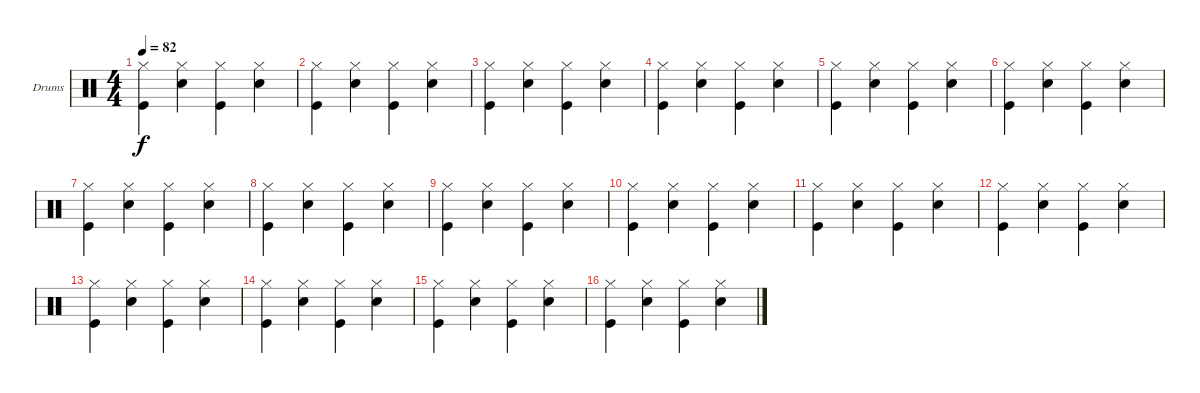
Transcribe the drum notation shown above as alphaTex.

\bracketExtendMode groupsimilarinstruments
\firstSystemTrackNameOrientation horizontal
\otherSystemsTrackNameOrientation horizontal
\track ("Drumkit" "Drums") {instrument percussion}
\staff {score}
\articulation defaults
\ts (4 4)
\tempo 82
\clef neutral
\ks c
("Hi-Hat (closed)" "Kick (hit)").4{dy f} ("Hi-Hat (closed)" "Snare (hit) 2").4 ("Hi-Hat (closed)" "Kick (hit)").4 ("Hi-Hat (closed)" "Snare (hit) 2").4 |
("Hi-Hat (closed)" "Kick (hit)").4 ("Hi-Hat (closed)" "Snare (hit) 2").4 ("Hi-Hat (closed)" "Kick (hit)").4 ("Hi-Hat (closed)" "Snare (hit) 2").4 |
("Hi-Hat (closed)" "Kick (hit)").4 ("Hi-Hat (closed)" "Snare (hit) 2").4 ("Hi-Hat (closed)" "Kick (hit)").4 ("Hi-Hat (closed)" "Snare (hit) 2").4 |
("Hi-Hat (closed)" "Kick (hit)").4 ("Hi-Hat (closed)" "Snare (hit) 2").4 ("Hi-Hat (closed)" "Kick (hit)").4 ("Hi-Hat (closed)" "Snare (hit) 2").4 |
("Hi-Hat (closed)" "Kick (hit)").4 ("Hi-Hat (closed)" "Snare (hit) 2").4 ("Hi-Hat (closed)" "Kick (hit)").4 ("Hi-Hat (closed)" "Snare (hit) 2").4 |
("Hi-Hat (closed)" "Kick (hit)").4 ("Hi-Hat (closed)" "Snare (hit) 2").4 ("Hi-Hat (closed)" "Kick (hit)").4 ("Hi-Hat (closed)" "Snare (hit) 2").4 |
("Hi-Hat (closed)" "Kick (hit)").4 ("Hi-Hat (closed)" "Snare (hit) 2").4 ("Hi-Hat (closed)" "Kick (hit)").4 ("Hi-Hat (closed)" "Snare (hit) 2").4 |
("Hi-Hat (closed)" "Kick (hit)").4 ("Hi-Hat (closed)" "Snare (hit) 2").4 ("Hi-Hat (closed)" "Kick (hit)").4 ("Hi-Hat (closed)" "Snare (hit) 2").4 |
("Hi-Hat (closed)" "Kick (hit)").4 ("Hi-Hat (closed)" "Snare (hit) 2").4 ("Hi-Hat (closed)" "Kick (hit)").4 ("Hi-Hat (closed)" "Snare (hit) 2").4 |
("Hi-Hat (closed)" "Kick (hit)").4 ("Hi-Hat (closed)" "Snare (hit) 2").4 ("Hi-Hat (closed)" "Kick (hit)").4 ("Hi-Hat (closed)" "Snare (hit) 2").4 |
("Hi-Hat (closed)" "Kick (hit)").4 ("Hi-Hat (closed)" "Snare (hit) 2").4 ("Hi-Hat (closed)" "Kick (hit)").4 ("Hi-Hat (closed)" "Snare (hit) 2").4 |
("Hi-Hat (closed)" "Kick (hit)").4 ("Hi-Hat (closed)" "Snare (hit) 2").4 ("Hi-Hat (closed)" "Kick (hit)").4 ("Hi-Hat (closed)" "Snare (hit) 2").4 |
("Hi-Hat (closed)" "Kick (hit)").4 ("Hi-Hat (closed)" "Snare (hit) 2").4 ("Hi-Hat (closed)" "Kick (hit)").4 ("Hi-Hat (closed)" "Snare (hit) 2").4 |
("Hi-Hat (closed)" "Kick (hit)").4 ("Hi-Hat (closed)" "Snare (hit) 2").4 ("Hi-Hat (closed)" "Kick (hit)").4 ("Hi-Hat (closed)" "Snare (hit) 2").4 |
("Hi-Hat (closed)" "Kick (hit)").4 ("Hi-Hat (closed)" "Snare (hit) 2").4 ("Hi-Hat (closed)" "Kick (hit)").4 ("Hi-Hat (closed)" "Snare (hit) 2").4 |
("Hi-Hat (closed)" "Kick (hit)").4 ("Hi-Hat (closed)" "Snare (hit) 2").4 ("Hi-Hat (closed)" "Kick (hit)").4 ("Hi-Hat (closed)" "Snare (hit) 2").4
